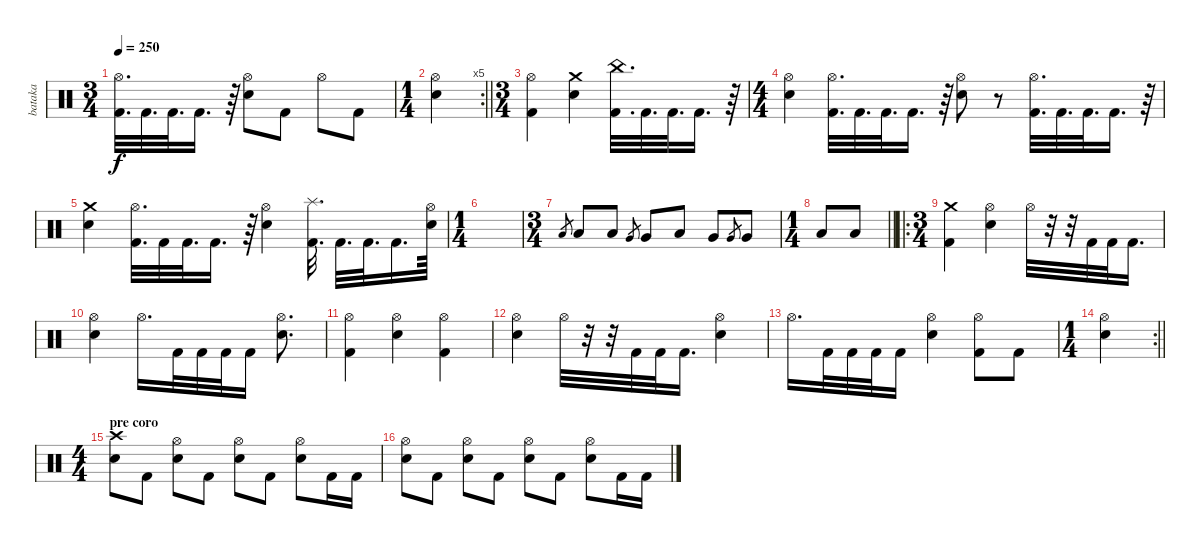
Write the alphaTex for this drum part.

\track ("bataka" "bataka") {instrument percussion}
\staff {score}
\articulation defaults
\ts (3 4)
\tempo 250
\clef neutral
\ks c
("Hi-Hat (open)" "Kick (hit) 2").32{d dy f} "Kick (hit) 2".32{d} "Kick (hit) 2".32{d} "Kick (hit) 2".16{d} r.64 ("Hi-Hat (open)" "Electric Snare (hit)").8 "Kick (hit) 2".8 "Hi-Hat (open)".8 "Kick (hit) 2".8 |
\rc 5
\ts (1 4)
\barLineRight lightlight
("Hi-Hat (open)" "Electric Snare (hit)").4 |
\ts (3 4)
("Hi-Hat (open)" "Kick (hit) 2").4 ("Crash medium (hit)" "Electric Snare (hit)").4 ("China (hit)" "Kick (hit) 2").32{d} "Kick (hit) 2".32{d} "Kick (hit) 2".32{d} "Kick (hit) 2".16{d} r.64 |
\ts (4 4)
("Hi-Hat (open)" "Electric Snare (hit)").4 ("Hi-Hat (open)" "Kick (hit) 2").32{d} "Kick (hit) 2".32{d} "Kick (hit) 2".32{d} "Kick (hit) 2".16{d} r.64 ("Hi-Hat (open)" "Electric Snare (hit)").8 r.8 ("Hi-Hat (open)" "Kick (hit) 2").32{d} "Kick (hit) 2".32{d} "Kick (hit) 2".32{d} "Kick (hit) 2".16{d} r.64 |
("Crash medium (hit)" "Electric Snare (hit)").4 ("Hi-Hat (open)" "Kick (hit) 2").32{d} "Kick (hit) 2".32 "Kick (hit) 2".32{d} "Kick (hit) 2".16{d} r.64 ("Hi-Hat (open)" "Electric Snare (hit)").4 ("Splash (hit)" "Kick (hit) 2").32{d} "Kick (hit) 2".32{d} "Kick (hit) 2".32{d} "Kick (hit) 2".16{d} ("Hi-Hat (open)" "Electric Snare (hit)").64 |
\ts (1 4)
|
\ts (3 4)
"Low Tom (hit)".8{gr} "Low Tom (hit)".8 "Low Tom (hit)".8 "Very Low Tom (hit)".8{gr} "Very Low Tom (hit)".8 "Low Tom (hit)".8 "Very Low Tom (hit)".8 "Very Low Tom (hit)".8{gr} "Very Low Tom (hit)".8 |
\ts (1 4)
\barLineRight lightlight "Low Floor Tom (hit)".8 "Low Floor Tom (hit)".8
|
\ro
\ts (3 4)
("Crash medium (hit)" "Kick (hit) 2").4 ("Hi-Hat (open)" "Electric Snare (hit)").4 "Hi-Hat (open)".32 r.32 r.32 "Kick (hit) 2".32 "Kick (hit) 2".32 "Kick (hit) 2".16{d} |
("Hi-Hat (open)" "Electric Snare (hit)").4 "Hi-Hat (open)".16{d} "Kick (hit) 2".32 "Kick (hit) 2".32 "Kick (hit) 2".32 "Kick (hit) 2".16 ("Hi-Hat (open)" "Electric Snare (hit)").8{d} |
("Hi-Hat (open)" "Kick (hit) 2").4 ("Hi-Hat (open)" "Electric Snare (hit)").4 ("Hi-Hat (open)" "Kick (hit) 2").4 |
("Hi-Hat (open)" "Electric Snare (hit)").4 "Hi-Hat (open)".32 r.32 r.32 "Kick (hit) 2".32 "Kick (hit) 2".32 "Kick (hit) 2".16{d} ("Hi-Hat (open)" "Electric Snare (hit)").4 |
"Hi-Hat (open)".16{d} "Kick (hit) 2".32 "Kick (hit) 2".32 "Kick (hit) 2".32 "Kick (hit) 2".16 ("Hi-Hat (open)" "Electric Snare (hit)").4 ("Hi-Hat (open)" "Kick (hit) 2").8 "Kick (hit) 2".8 |
\rc 2
\ts (1 4)
\barLineRight lightlight
("Hi-Hat (open)" "Electric Snare (hit)").4 |
\ts (4 4)
\section ("" "pre coro ")
("Crash high (hit)" "Electric Snare (hit)").8 "Kick (hit) 2".8 ("Hi-Hat (open)" "Electric Snare (hit)").8 "Kick (hit) 2".8 ("Hi-Hat (open)" "Electric Snare (hit)").8 "Kick (hit) 2".8 ("Hi-Hat (open)" "Electric Snare (hit)").8 "Kick (hit) 2".16 "Kick (hit) 2".16 |
("Hi-Hat (open)" "Electric Snare (hit)").8 "Kick (hit) 2".8 ("Hi-Hat (open)" "Electric Snare (hit)").8 "Kick (hit) 2".8 ("Hi-Hat (open)" "Electric Snare (hit)").8 "Kick (hit) 2".8 ("Hi-Hat (open)" "Electric Snare (hit)").8 "Kick (hit) 2".16 "Kick (hit) 2".16
